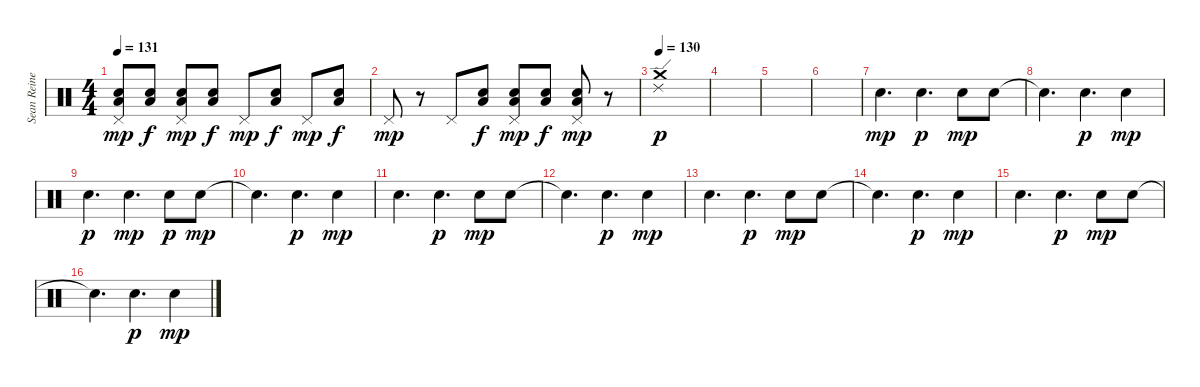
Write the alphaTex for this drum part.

\track ("Sean Reinert" "Sean Reine") {instrument percussion}
\staff {score}
\articulation defaults
\ts (4 4)
\tempo 131
\clef neutral
\ks c
("Snare (hit) 2" "Low Tom (hit)" "Pedal Hi-Hat (hit)").8{dy mp} ("Snare (hit) 2" "Low Tom (hit)").8{dy f} ("Snare (hit) 2" "Low Tom (hit)" "Pedal Hi-Hat (hit)").8{dy mp} ("Snare (hit) 2" "Low Tom (hit)").8{dy f} "Pedal Hi-Hat (hit)".8{dy mp} ("Snare (hit) 2" "Low Tom (hit)").8{dy f} "Pedal Hi-Hat (hit)".8{dy mp} ("Snare (hit) 2" "Low Tom (hit)").8{dy f} |
"Pedal Hi-Hat (hit)".8{dy mp} r.8 "Pedal Hi-Hat (hit)".8 ("Snare (hit) 2" "Low Tom (hit)").8{dy f} ("Snare (hit) 2" "Low Tom (hit)" "Pedal Hi-Hat (hit)").8{dy mp} ("Snare (hit) 2" "Low Tom (hit)").8{dy f} ("Snare (hit) 2" "Low Tom (hit)" "Pedal Hi-Hat (hit)").8{dy mp} r.8 |
\tempo 130
("Crash medium (hit)" "Ride (edge) 2").1{dy p} |
|
|
|
"Snare (hit) 2".4{d dy mp} "Snare (hit) 2".4{d dy p} "Snare (hit) 2".8{dy mp} "Snare (hit) 2".8 |
"Snare (hit)"{t}.4{d} "Snare (hit) 2".4{d dy p} "Snare (hit) 2".4{dy mp} |
"Snare (hit) 2".4{d dy p} "Snare (hit) 2".4{d dy mp} "Snare (hit) 2".8{dy p} "Snare (hit) 2".8{dy mp} |
"Snare (hit)"{t}.4{d} "Snare (hit) 2".4{d dy p} "Snare (hit) 2".4{dy mp} |
"Snare (hit) 2".4{d} "Snare (hit) 2".4{d dy p} "Snare (hit) 2".8{dy mp} "Snare (hit) 2".8 |
"Snare (hit)"{t}.4{d} "Snare (hit) 2".4{d dy p} "Snare (hit) 2".4{dy mp} |
"Snare (hit) 2".4{d} "Snare (hit) 2".4{d dy p} "Snare (hit) 2".8{dy mp} "Snare (hit) 2".8 |
"Snare (hit)"{t}.4{d} "Snare (hit) 2".4{d dy p} "Snare (hit) 2".4{dy mp} |
"Snare (hit) 2".4{d} "Snare (hit) 2".4{d dy p} "Snare (hit) 2".8{dy mp} "Snare (hit) 2".8 |
"Snare (hit)"{t}.4{d} "Snare (hit) 2".4{d dy p} "Snare (hit) 2".4{dy mp}
